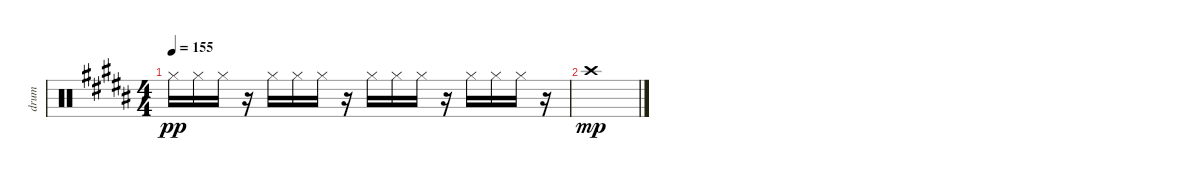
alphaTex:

\track ("drum" "drum") {instrument percussion}
\staff {score}
\articulation defaults
\ts (4 4)
\tempo 155
\clef neutral
\ks b "Hi-Hat (closed)".16{dy pp} "Hi-Hat (closed)".16 "Hi-Hat (closed)".16
r.16 "Hi-Hat (closed)".16 "Hi-Hat (closed)".16 "Hi-Hat (closed)".16 r.16 "Hi-Hat (closed)".16 "Hi-Hat (closed)".16 "Hi-Hat (closed)".16 r.16 "Hi-Hat (closed)".16 "Hi-Hat (closed)".16 "Hi-Hat (closed)".16 r.16 |
"Crash high (hit)".1{dy mp}
